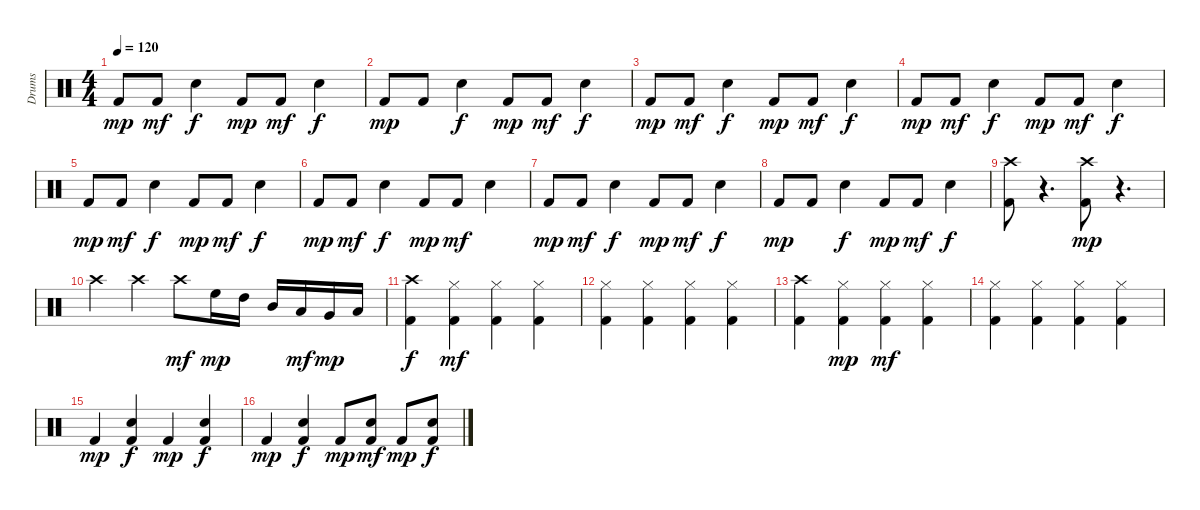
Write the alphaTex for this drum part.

\track ("Drums" "Drums") {instrument percussion}
\staff {score}
\articulation defaults
\ts (4 4)
\tempo 120
\clef neutral
\ks c "Kick (hit) 2".8{dy mp} "Kick (hit) 2".8{dy mf} "Snare (hit) 2".4{dy f} "Kick (hit) 2".8{dy mp} "Kick (hit) 2".8{dy mf} "Snare (hit) 2".4{dy f}
|
"Kick (hit) 2".8{dy mp} "Kick (hit) 2".8 "Snare (hit) 2".4{dy f} "Kick (hit) 2".8{dy mp} "Kick (hit) 2".8{dy mf} "Snare (hit) 2".4{dy f} |
"Kick (hit) 2".8{dy mp} "Kick (hit) 2".8{dy mf} "Snare (hit) 2".4{dy f} "Kick (hit) 2".8{dy mp} "Kick (hit) 2".8{dy mf} "Snare (hit) 2".4{dy f} |
"Kick (hit) 2".8{dy mp} "Kick (hit) 2".8{dy mf} "Snare (hit) 2".4{dy f} "Kick (hit) 2".8{dy mp} "Kick (hit) 2".8{dy mf} "Snare (hit) 2".4{dy f} |
"Kick (hit) 2".8{dy mp} "Kick (hit) 2".8{dy mf} "Snare (hit) 2".4{dy f} "Kick (hit) 2".8{dy mp} "Kick (hit) 2".8{dy mf} "Snare (hit) 2".4{dy f} |
"Kick (hit) 2".8{dy mp} "Kick (hit) 2".8{dy mf} "Snare (hit) 2".4{dy f} "Kick (hit) 2".8{dy mp} "Kick (hit) 2".8{dy mf} "Snare (hit) 2".4 |
"Kick (hit) 2".8{dy mp} "Kick (hit) 2".8{dy mf} "Snare (hit) 2".4{dy f} "Kick (hit) 2".8{dy mp} "Kick (hit) 2".8{dy mf} "Snare (hit) 2".4{dy f} |
"Kick (hit) 2".8{dy mp} "Kick (hit) 2".8 "Snare (hit) 2".4{dy f} "Kick (hit) 2".8{dy mp} "Kick (hit) 2".8{dy mf} "Snare (hit) 2".4{dy f} |
("Kick (hit) 2" "Crash high (hit)").8 r.4{d} ("Kick (hit) 2" "Crash high (hit)").8{dy mp} r.4{d} |
"Crash high (hit)".4 "Crash high (hit)".4 "Crash high (hit)".8{dy mf} "High Floor Tom (hit)".16{dy mp} "High Tom (hit)".16 "Mid Tom (hit)".16 "Low Tom (hit)".16{dy mf} "Very Low Tom (hit)".16{dy mp} "Low Floor Tom (hit)".16 |
("Kick (hit) 2" "Crash high (hit)").4{dy f} ("Kick (hit) 2" "Hi-Hat (closed)").4{dy mf} ("Kick (hit) 2" "Hi-Hat (closed)").4 ("Kick (hit) 2" "Hi-Hat (closed)").4 |
("Kick (hit) 2" "Hi-Hat (closed)").4 ("Kick (hit) 2" "Hi-Hat (closed)").4 ("Kick (hit) 2" "Hi-Hat (closed)").4 ("Kick (hit) 2" "Hi-Hat (closed)").4 |
("Kick (hit) 2" "Crash high (hit)").4 ("Kick (hit) 2" "Hi-Hat (closed)").4{dy mp} ("Kick (hit) 2" "Hi-Hat (closed)").4{dy mf} ("Kick (hit) 2" "Hi-Hat (closed)").4 |
("Kick (hit) 2" "Hi-Hat (closed)").4 ("Kick (hit) 2" "Hi-Hat (closed)").4 ("Kick (hit) 2" "Hi-Hat (closed)").4 ("Kick (hit) 2" "Hi-Hat (closed)").4 |
"Kick (hit) 2".4{dy mp} ("Kick (hit) 2" "Snare (hit) 2").4{dy f} "Kick (hit) 2".4{dy mp} ("Kick (hit) 2" "Snare (hit) 2").4{dy f} |
"Kick (hit) 2".4{dy mp} ("Kick (hit) 2" "Snare (hit) 2").4{dy f} "Kick (hit) 2".8{dy mp} ("Kick (hit) 2" "Snare (hit) 2").8{dy mf} "Kick (hit) 2".8{dy mp} ("Kick (hit) 2" "Snare (hit) 2").8{dy f}
